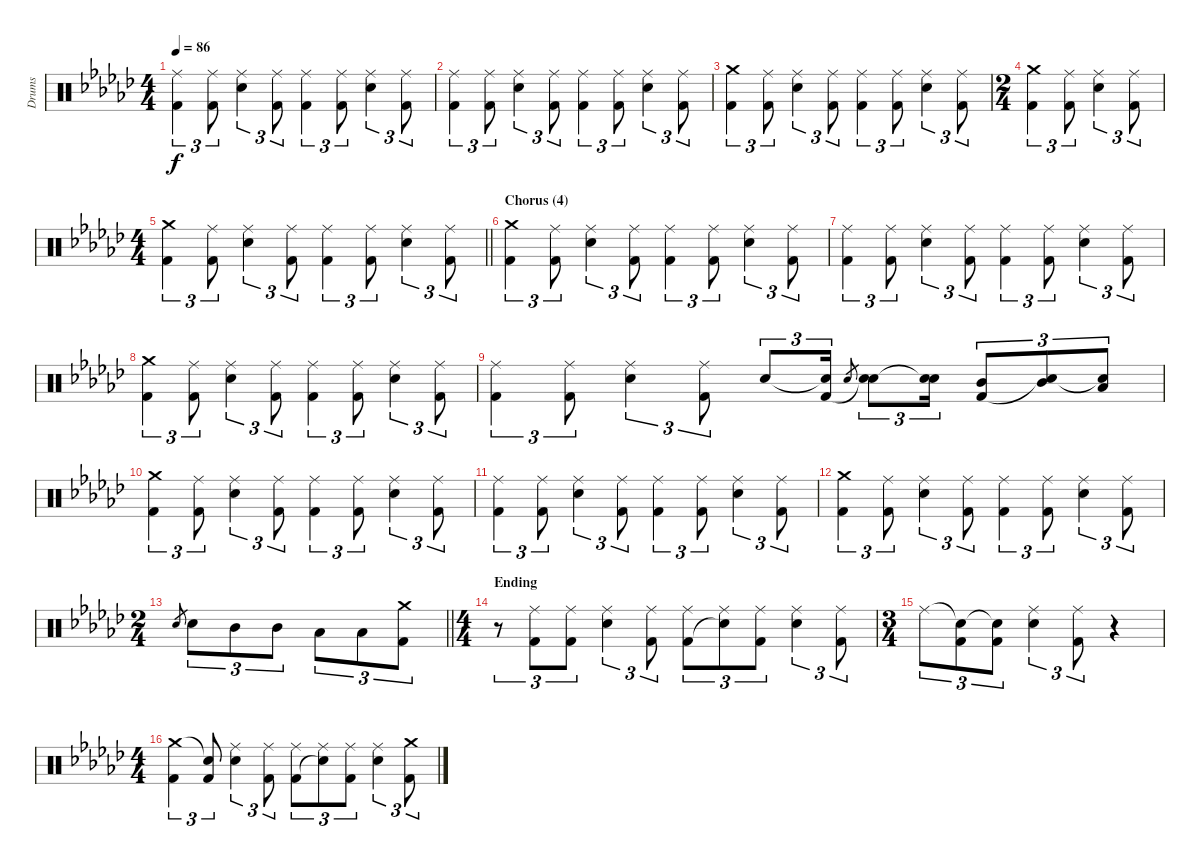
\track ("Drums" "Drums") {instrument percussion}
\staff {score}
\articulation defaults
\ts (4 4)
\tempo 86
\clef neutral
\ks ebminor
("Ride (middle)" "Kick (hit) 2").4{tu (3 2) dy f} ("Ride (middle)" "Kick (hit) 2").8{tu (3 2)} ("Ride (middle)" "Electric Snare (hit)").4{tu (3 2)} ("Ride (middle)" "Kick (hit) 2").8{tu (3 2)} ("Ride (middle)" "Kick (hit) 2").4{tu (3 2)} ("Ride (middle)" "Kick (hit) 2").8{tu (3 2)} ("Ride (middle)" "Electric Snare (hit)").4{tu (3 2)} ("Ride (middle)" "Kick (hit) 2").8{tu (3 2)} |
("Ride (middle)" "Kick (hit) 2").4{tu (3 2)} ("Ride (middle)" "Kick (hit) 2").8{tu (3 2)} ("Ride (middle)" "Electric Snare (hit)").4{tu (3 2)} ("Ride (middle)" "Kick (hit) 2").8{tu (3 2)} ("Ride (middle)" "Kick (hit) 2").4{tu (3 2)} ("Ride (middle)" "Kick (hit) 2").8{tu (3 2)} ("Ride (middle)" "Electric Snare (hit)").4{tu (3 2)} ("Ride (middle)" "Kick (hit) 2").8{tu (3 2)} |
("Crash medium (hit)" "Kick (hit) 2").4{tu (3 2)} ("Ride (middle)" "Kick (hit) 2").8{tu (3 2)} ("Ride (middle)" "Electric Snare (hit)").4{tu (3 2)} ("Ride (middle)" "Kick (hit) 2").8{tu (3 2)} ("Ride (middle)" "Kick (hit) 2").4{tu (3 2)} ("Ride (middle)" "Kick (hit) 2").8{tu (3 2)} ("Ride (middle)" "Electric Snare (hit)").4{tu (3 2)} ("Ride (middle)" "Kick (hit) 2").8{tu (3 2)} |
\ts (2 4)
("Crash medium (hit)" "Kick (hit) 2").4{tu (3 2)} ("Ride (middle)" "Kick (hit) 2").8{tu (3 2)} ("Ride (middle)" "Electric Snare (hit)").4{tu (3 2)} ("Ride (middle)" "Kick (hit) 2").8{tu (3 2)} |
\ts (4 4)
\barLineRight lightlight
("Crash medium (hit)" "Kick (hit) 2").4{tu (3 2)} ("Ride (middle)" "Kick (hit) 2").8{tu (3 2)} ("Ride (middle)" "Electric Snare (hit)").4{tu (3 2)} ("Ride (middle)" "Kick (hit) 2").8{tu (3 2)} ("Ride (middle)" "Kick (hit) 2").4{tu (3 2)} ("Ride (middle)" "Kick (hit) 2").8{tu (3 2)} ("Ride (middle)" "Electric Snare (hit)").4{tu (3 2)} ("Ride (middle)" "Kick (hit) 2").8{tu (3 2)} |
\section ("" "Chorus (4)")
("Crash medium (hit)" "Kick (hit) 2").4{tu (3 2)} ("Ride (middle)" "Kick (hit) 2").8{tu (3 2)} ("Ride (middle)" "Electric Snare (hit)").4{tu (3 2)} ("Ride (middle)" "Kick (hit) 2").8{tu (3 2)} ("Ride (middle)" "Kick (hit) 2").4{tu (3 2)} ("Ride (middle)" "Kick (hit) 2").8{tu (3 2)} ("Ride (middle)" "Electric Snare (hit)").4{tu (3 2)} ("Ride (middle)" "Kick (hit) 2").8{tu (3 2)} |
("Ride (middle)" "Kick (hit) 2").4{tu (3 2)} ("Ride (middle)" "Kick (hit) 2").8{tu (3 2)} ("Ride (middle)" "Electric Snare (hit)").4{tu (3 2)} ("Ride (middle)" "Kick (hit) 2").8{tu (3 2)} ("Ride (middle)" "Kick (hit) 2").4{tu (3 2)} ("Ride (middle)" "Kick (hit) 2").8{tu (3 2)} ("Ride (middle)" "Electric Snare (hit)").4{tu (3 2)} ("Ride (middle)" "Kick (hit) 2").8{tu (3 2)} |
("Crash medium (hit)" "Kick (hit) 2").4{tu (3 2)} ("Ride (middle)" "Kick (hit) 2").8{tu (3 2)} ("Ride (middle)" "Electric Snare (hit)").4{tu (3 2)} ("Ride (middle)" "Kick (hit) 2").8{tu (3 2)} ("Ride (middle)" "Kick (hit) 2").4{tu (3 2)} ("Ride (middle)" "Kick (hit) 2").8{tu (3 2)} ("Ride (middle)" "Electric Snare (hit)").4{tu (3 2)} ("Ride (middle)" "Kick (hit) 2").8{tu (3 2)} |
("Ride (middle)" "Kick (hit) 2").4{tu (3 2)} ("Ride (middle)" "Kick (hit) 2").8{tu (3 2)} ("Ride (middle)" "Electric Snare (hit)").4{tu (3 2)} ("Ride (middle)" "Kick (hit) 2").8{tu (3 2)} "Electric Snare (hit)".8{tu (3 2)} ("Snare (hit)"{t} "Kick (hit) 2").16{tu (3 2)} "Electric Snare (hit)".8{gr} ("Electric Snare (hit)" "Snare (hit)"{t}).8{tu (3 2)} ("Electric Snare (hit)" "Snare (hit)"{t}).16{tu (3 2)} ("Mid Tom (hit)" "Kick (hit) 2").8{tu (3 2)} ("Mid Tom (hit)" "Snare (hit)"{t}).8{tu (3 2)} ("Low Floor Tom (hit)" "Snare (hit)"{t}).8{tu (3 2)} |
("Crash medium (hit)" "Kick (hit) 2").4{tu (3 2)} ("Ride (middle)" "Kick (hit) 2").8{tu (3 2)} ("Ride (middle)" "Electric Snare (hit)").4{tu (3 2)} ("Ride (middle)" "Kick (hit) 2").8{tu (3 2)} ("Ride (middle)" "Kick (hit) 2").4{tu (3 2)} ("Ride (middle)" "Kick (hit) 2").8{tu (3 2)} ("Ride (middle)" "Electric Snare (hit)").4{tu (3 2)} ("Ride (middle)" "Kick (hit) 2").8{tu (3 2)} |
("Ride (middle)" "Kick (hit) 2").4{tu (3 2)} ("Ride (middle)" "Kick (hit) 2").8{tu (3 2)} ("Ride (middle)" "Electric Snare (hit)").4{tu (3 2)} ("Ride (middle)" "Kick (hit) 2").8{tu (3 2)} ("Ride (middle)" "Kick (hit) 2").4{tu (3 2)} ("Ride (middle)" "Kick (hit) 2").8{tu (3 2)} ("Ride (middle)" "Electric Snare (hit)").4{tu (3 2)} ("Ride (middle)" "Kick (hit) 2").8{tu (3 2)} |
("Crash medium (hit)" "Kick (hit) 2").4{tu (3 2)} ("Ride (middle)" "Kick (hit) 2").8{tu (3 2)} ("Ride (middle)" "Electric Snare (hit)").4{tu (3 2)} ("Ride (middle)" "Kick (hit) 2").8{tu (3 2)} ("Ride (middle)" "Kick (hit) 2").4{tu (3 2)} ("Ride (middle)" "Kick (hit) 2").8{tu (3 2)} ("Ride (middle)" "Electric Snare (hit)").4{tu (3 2)} ("Ride (middle)" "Kick (hit) 2").8{tu (3 2)} |
\ts (2 4)
\barLineRight lightlight "Electric Snare (hit)".8{gr} "Electric Snare (hit)".8{tu (3 2)} "Mid Tom (hit)".8{tu (3 2)} "Mid Tom (hit)".8{tu (3 2)} "Low Floor Tom (hit)".8{tu (3 2)} "Low Floor Tom (hit)".8{tu (3 2)}
("Crash medium (hit)" "Kick (hit) 2").8{tu (3 2)} |
\ts (4 4)
\section ("" "Ending")
r.8{tu (3 2)} ("Ride (middle)" "Kick (hit) 2").8{tu (3 2)} ("Ride (middle)" "Kick (hit) 2").8{tu (3 2)} ("Ride (middle)" "Electric Snare (hit)").4{tu (3 2)} ("Ride (middle)" "Kick (hit) 2").8{tu (3 2)} ("Ride (middle)" "Kick (hit) 2").8{tu (3 2)} ("Ride (middle)" "Snare (hit)"{t}).8{tu (3 2)} ("Ride (middle)" "Kick (hit) 2").8{tu (3 2)} ("Ride (middle)" "Electric Snare (hit)").4{tu (3 2)} ("Ride (middle)" "Kick (hit) 2").8{tu (3 2)} |
\ts (3 4)
"Ride (middle)".8{tu (3 2)} ("Snare (hit)"{t} "Kick (hit) 2").8{tu (3 2)} ("Snare (hit)"{t} "Kick (hit) 2").8{tu (3 2)} ("Ride (middle)" "Electric Snare (hit)").4{tu (3 2)} ("Ride (middle)" "Kick (hit) 2").8{tu (3 2)} r.4 |
\ts (4 4)
("Crash medium (hit)" "Kick (hit) 2").4{tu (3 2)} ("Snare (hit)"{t} "Kick (hit) 2").8{tu (3 2)} ("Ride (middle)" "Electric Snare (hit)").4{tu (3 2)} ("Ride (middle)" "Kick (hit) 2").8{tu (3 2)} ("Ride (middle)" "Kick (hit) 2").8{tu (3 2)} ("Ride (middle)" "Snare (hit)"{t}).8{tu (3 2)} ("Ride (middle)" "Kick (hit) 2").8{tu (3 2)} ("Ride (middle)" "Electric Snare (hit)").4{tu (3 2)} ("Crash medium (hit)" "Kick (hit) 2").8{tu (3 2)}
